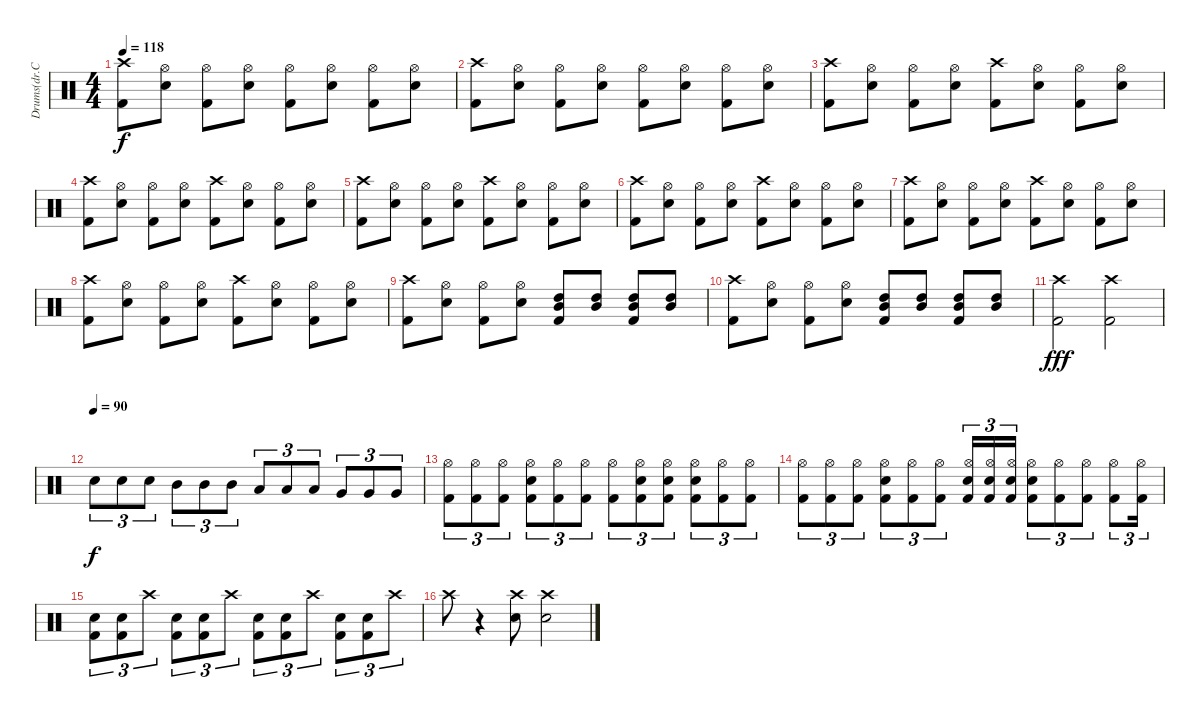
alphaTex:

\track ("Drums(dr.Chud)" "Drums(dr.C") {instrument percussion}
\staff {score}
\articulation defaults
\ts (4 4)
\tempo 118
\clef neutral
\ks c
("Crash high (hit)" "Kick (hit) 2").8{dy f} ("Hi-Hat (open)" "Electric Snare (hit)").8 ("Hi-Hat (open)" "Kick (hit) 2").8 ("Hi-Hat (open)" "Electric Snare (hit)").8 ("Hi-Hat (open)" "Kick (hit) 2").8 ("Hi-Hat (open)" "Electric Snare (hit)").8 ("Hi-Hat (open)" "Kick (hit) 2").8 ("Hi-Hat (open)" "Electric Snare (hit)").8 |
("Crash high (hit)" "Kick (hit) 2").8 ("Hi-Hat (open)" "Electric Snare (hit)").8 ("Hi-Hat (open)" "Kick (hit) 2").8 ("Hi-Hat (open)" "Electric Snare (hit)").8 ("Hi-Hat (open)" "Kick (hit) 2").8 ("Hi-Hat (open)" "Electric Snare (hit)").8 ("Hi-Hat (open)" "Kick (hit) 2").8 ("Hi-Hat (open)" "Electric Snare (hit)").8 |
("Crash high (hit)" "Kick (hit) 2").8 ("Hi-Hat (open)" "Electric Snare (hit)").8 ("Hi-Hat (open)" "Kick (hit) 2").8 ("Hi-Hat (open)" "Electric Snare (hit)").8 ("Crash high (hit)" "Kick (hit) 2").8 ("Hi-Hat (open)" "Electric Snare (hit)").8 ("Hi-Hat (open)" "Kick (hit) 2").8 ("Hi-Hat (open)" "Electric Snare (hit)").8 |
("Crash high (hit)" "Kick (hit) 2").8 ("Hi-Hat (open)" "Electric Snare (hit)").8 ("Hi-Hat (open)" "Kick (hit) 2").8 ("Hi-Hat (open)" "Electric Snare (hit)").8 ("Crash high (hit)" "Kick (hit) 2").8 ("Hi-Hat (open)" "Electric Snare (hit)").8 ("Hi-Hat (open)" "Kick (hit) 2").8 ("Hi-Hat (open)" "Electric Snare (hit)").8 |
("Crash high (hit)" "Kick (hit) 2").8 ("Hi-Hat (open)" "Electric Snare (hit)").8 ("Hi-Hat (open)" "Kick (hit) 2").8 ("Hi-Hat (open)" "Electric Snare (hit)").8 ("Crash high (hit)" "Kick (hit) 2").8 ("Hi-Hat (open)" "Electric Snare (hit)").8 ("Hi-Hat (open)" "Kick (hit) 2").8 ("Hi-Hat (open)" "Electric Snare (hit)").8 |
("Crash high (hit)" "Kick (hit) 2").8 ("Hi-Hat (open)" "Electric Snare (hit)").8 ("Hi-Hat (open)" "Kick (hit) 2").8 ("Hi-Hat (open)" "Electric Snare (hit)").8 ("Crash high (hit)" "Kick (hit) 2").8 ("Hi-Hat (open)" "Electric Snare (hit)").8 ("Hi-Hat (open)" "Kick (hit) 2").8 ("Hi-Hat (open)" "Electric Snare (hit)").8 |
("Crash high (hit)" "Kick (hit) 2").8 ("Hi-Hat (open)" "Electric Snare (hit)").8 ("Hi-Hat (open)" "Kick (hit) 2").8 ("Hi-Hat (open)" "Electric Snare (hit)").8 ("Crash high (hit)" "Kick (hit) 2").8 ("Hi-Hat (open)" "Electric Snare (hit)").8 ("Hi-Hat (open)" "Kick (hit) 2").8 ("Hi-Hat (open)" "Electric Snare (hit)").8 |
("Crash high (hit)" "Kick (hit) 2").8 ("Hi-Hat (open)" "Electric Snare (hit)").8 ("Hi-Hat (open)" "Kick (hit) 2").8 ("Hi-Hat (open)" "Electric Snare (hit)").8 ("Crash high (hit)" "Kick (hit) 2").8 ("Hi-Hat (open)" "Electric Snare (hit)").8 ("Hi-Hat (open)" "Kick (hit) 2").8 ("Hi-Hat (open)" "Electric Snare (hit)").8 |
("Crash high (hit)" "Kick (hit) 2").8 ("Hi-Hat (open)" "Electric Snare (hit)").8 ("Hi-Hat (open)" "Kick (hit) 2").8 ("Hi-Hat (open)" "Electric Snare (hit)").8 ("High Tom (hit)" "Mid Tom (hit)" "Kick (hit) 2").8 ("High Tom (hit)" "Mid Tom (hit)").8 ("High Tom (hit)" "Mid Tom (hit)" "Kick (hit) 2").8 ("High Tom (hit)" "Mid Tom (hit)").8 |
("Crash high (hit)" "Kick (hit) 2").8 ("Hi-Hat (open)" "Electric Snare (hit)").8 ("Hi-Hat (open)" "Kick (hit) 2").8 ("Hi-Hat (open)" "Electric Snare (hit)").8 ("High Tom (hit)" "Mid Tom (hit)" "Kick (hit) 2").8 ("High Tom (hit)" "Mid Tom (hit)").8 ("High Tom (hit)" "Mid Tom (hit)" "Kick (hit) 2").8 ("High Tom (hit)" "Mid Tom (hit)").8 |
("Crash high (hit)" "Kick (hit) 2").2{dy fff} ("Crash high (hit)" "Kick (hit) 2").2 |
\tempo (90)
"Electric Snare (hit)".8{tu (3 2) dy f} "Electric Snare (hit)".8{tu (3 2)} "Electric Snare (hit)".8{tu (3 2)} "Mid Tom (hit)".8{tu (3 2)} "Mid Tom (hit)".8{tu (3 2)} "Mid Tom (hit)".8{tu (3 2)} "Low Tom (hit)".8{tu (3 2)} "Low Tom (hit)".8{tu (3 2)} "Low Tom (hit)".8{tu (3 2)} "Very Low Tom (hit)".8{tu (3 2)} "Very Low Tom (hit)".8{tu (3 2)} "Very Low Tom (hit)".8{tu (3 2)} |
("Hi-Hat (open)" "Kick (hit) 2").8{tu (3 2)} ("Hi-Hat (open)" "Kick (hit) 2").8{tu (3 2)} ("Hi-Hat (open)" "Kick (hit) 2").8{tu (3 2)} ("Hi-Hat (open)" "Electric Snare (hit)" "Kick (hit) 2").8{tu (3 2)} ("Hi-Hat (open)" "Kick (hit) 2").8{tu (3 2)} ("Hi-Hat (open)" "Kick (hit) 2").8{tu (3 2)} ("Hi-Hat (open)" "Kick (hit) 2").8{tu (3 2)} ("Hi-Hat (open)" "Electric Snare (hit)" "Kick (hit) 2").8{tu (3 2)} ("Hi-Hat (open)" "Electric Snare (hit)" "Kick (hit) 2").8{tu (3 2)} ("Hi-Hat (open)" "Electric Snare (hit)" "Kick (hit) 2").8{tu (3 2)} ("Hi-Hat (open)" "Kick (hit) 2").8{tu (3 2)} ("Hi-Hat (open)" "Kick (hit) 2").8{tu (3 2)} |
("Hi-Hat (open)" "Kick (hit) 2").8{tu (3 2)} ("Hi-Hat (open)" "Kick (hit) 2").8{tu (3 2)} ("Hi-Hat (open)" "Kick (hit) 2").8{tu (3 2)} ("Hi-Hat (open)" "Electric Snare (hit)" "Kick (hit) 2").8{tu (3 2)} ("Hi-Hat (open)" "Kick (hit) 2").8{tu (3 2)} ("Hi-Hat (open)" "Kick (hit) 2").8{tu (3 2)} ("Hi-Hat (open)" "Electric Snare (hit)" "Kick (hit) 2").16{tu (3 2)} ("Hi-Hat (open)" "Electric Snare (hit)" "Kick (hit) 2").16{tu (3 2)} ("Hi-Hat (open)" "Electric Snare (hit)" "Kick (hit) 2").16{tu (3 2)} ("Hi-Hat (open)" "Electric Snare (hit)" "Kick (hit) 2").8{tu (3 2)} ("Hi-Hat (open)" "Kick (hit) 2").8{tu (3 2)} ("Hi-Hat (open)" "Kick (hit) 2").8{tu (3 2)} ("Hi-Hat (open)" "Kick (hit) 2").8{tu (3 2)} ("Hi-Hat (open)" "Kick (hit) 2").16{tu (3 2)} |
("Electric Snare (hit)" "Kick (hit) 2").8{tu (3 2)} ("Electric Snare (hit)" "Kick (hit) 2").8{tu (3 2)} "Crash high (hit)".8{tu (3 2)} ("Electric Snare (hit)" "Kick (hit) 2").8{tu (3 2)} ("Electric Snare (hit)" "Kick (hit) 2").8{tu (3 2)} "Crash high (hit)".8{tu (3 2)} ("Electric Snare (hit)" "Kick (hit) 2").8{tu (3 2)} ("Electric Snare (hit)" "Kick (hit) 2").8{tu (3 2)} "Crash high (hit)".8{tu (3 2)} ("Electric Snare (hit)" "Kick (hit) 2").8{tu (3 2)} ("Electric Snare (hit)" "Kick (hit) 2").8{tu (3 2)} "Crash high (hit)".8{tu (3 2)} |
"Crash high (hit)".8 r.4 ("Crash high (hit)" "Electric Snare (hit)").8 ("Crash high (hit)" "Electric Snare (hit)").2
